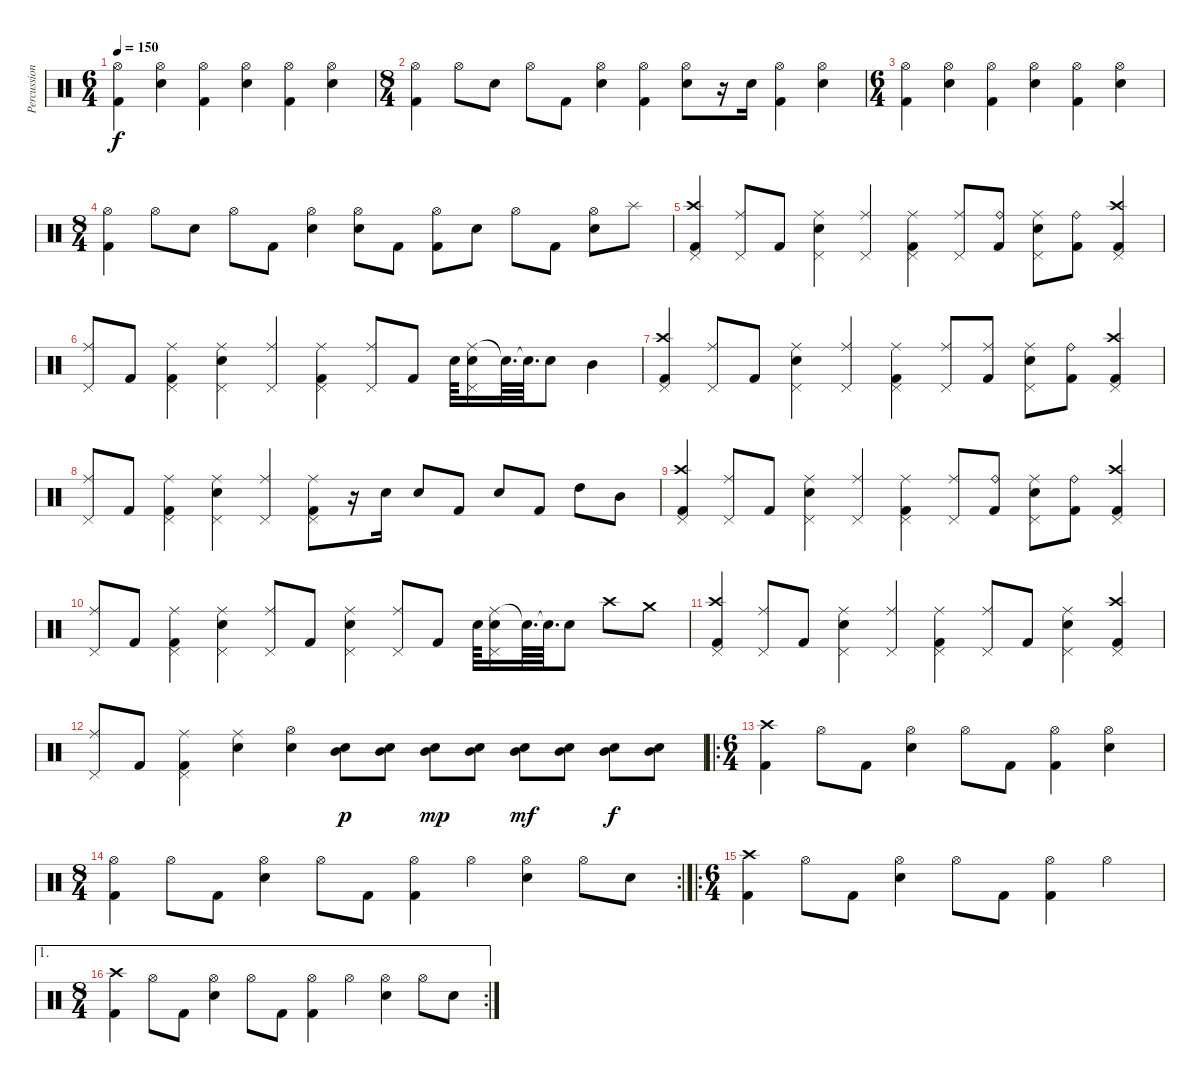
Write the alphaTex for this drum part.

\track ("Percussion" "Percussion") {instrument percussion}
\staff {score}
\articulation defaults
\ts (6 4)
\tempo 150
\clef neutral
\ks c
("Hi-Hat (open)" "Kick (hit) 2").4{dy f} ("Hi-Hat (open)" "Electric Snare (hit)").4 ("Hi-Hat (open)" "Kick (hit) 2").4 ("Hi-Hat (open)" "Electric Snare (hit)").4 ("Hi-Hat (open)" "Kick (hit) 2").4 ("Hi-Hat (open)" "Electric Snare (hit)").4 |
\ts (8 4)
("Hi-Hat (open)" "Kick (hit) 2").4 "Hi-Hat (open)".8 "Electric Snare (hit)".8 "Hi-Hat (open)".8 "Kick (hit) 2".8 ("Hi-Hat (open)" "Electric Snare (hit)").4 ("Hi-Hat (open)" "Kick (hit) 2").4 ("Hi-Hat (open)" "Electric Snare (hit)").8 r.16 "Electric Snare (hit)".16 ("Hi-Hat (open)" "Kick (hit) 2").4 ("Hi-Hat (open)" "Electric Snare (hit)").4 |
\ts (6 4)
("Hi-Hat (open)" "Kick (hit) 2").4 ("Hi-Hat (open)" "Electric Snare (hit)").4 ("Hi-Hat (open)" "Kick (hit) 2").4 ("Hi-Hat (open)" "Electric Snare (hit)").4 ("Hi-Hat (open)" "Kick (hit) 2").4 ("Hi-Hat (open)" "Electric Snare (hit)").4 |
\ts (8 4)
("Hi-Hat (open)" "Kick (hit) 2").4 "Hi-Hat (open)".8 "Electric Snare (hit)".8 "Hi-Hat (open)".8 "Kick (hit) 2".8 ("Hi-Hat (open)" "Electric Snare (hit)").4 ("Hi-Hat (open)" "Electric Snare (hit)").8 "Kick (hit) 2".8 ("Hi-Hat (open)" "Kick (hit) 2").8 "Electric Snare (hit)".8 "Hi-Hat (open)".8 "Kick (hit) 2".8 ("Hi-Hat (open)" "Electric Snare (hit)").8 "Splash (hit)".8 |
("Crash high (hit)" "Pedal Hi-Hat (hit)" "Kick (hit) 2").4 ("Ride (middle)" "Pedal Hi-Hat (hit)").8 "Kick (hit) 2".8 ("Ride (middle)" "Pedal Hi-Hat (hit)" "Electric Snare (hit)").4 ("Ride (middle)" "Pedal Hi-Hat (hit)").4 ("Ride (middle)" "Pedal Hi-Hat (hit)" "Kick (hit) 2").4 ("Ride (middle)" "Pedal Hi-Hat (hit)").8 ("Ride (bell)" "Kick (hit) 2").8 ("Ride (middle)" "Pedal Hi-Hat (hit)" "Electric Snare (hit)").8 ("Ride (bell)" "Kick (hit) 2").8 ("Crash high (hit)" "Pedal Hi-Hat (hit)" "Kick (hit) 2").4 |
("Ride (middle)" "Pedal Hi-Hat (hit)").8 "Kick (hit) 2".8 ("Ride (middle)" "Pedal Hi-Hat (hit)" "Kick (hit) 2").4 ("Ride (middle)" "Pedal Hi-Hat (hit)" "Electric Snare (hit)").4 ("Ride (middle)" "Pedal Hi-Hat (hit)").4 ("Ride (middle)" "Pedal Hi-Hat (hit)" "Kick (hit) 2").4 ("Ride (middle)" "Pedal Hi-Hat (hit)").8 "Kick (hit) 2".8 "Electric Snare (hit)".64 ("Ride (middle)" "Pedal Hi-Hat (hit)" "Electric Snare (hit)").16 "Snare (hit)"{t}.64{d} "Snare (hit)"{t}.64{d} "Electric Snare (hit)".8 "Mid Tom (hit)".4 |
("Crash high (hit)" "Pedal Hi-Hat (hit)" "Kick (hit) 2").4 ("Ride (middle)" "Pedal Hi-Hat (hit)").8 "Kick (hit) 2".8 ("Ride (middle)" "Pedal Hi-Hat (hit)" "Electric Snare (hit)").4 ("Ride (middle)" "Pedal Hi-Hat (hit)").4 ("Ride (middle)" "Pedal Hi-Hat (hit)" "Kick (hit) 2").4 ("Ride (middle)" "Pedal Hi-Hat (hit)").8 ("Ride (middle)" "Kick (hit) 2").8 ("Ride (middle)" "Pedal Hi-Hat (hit)" "Electric Snare (hit)").8 ("Ride (bell)" "Kick (hit) 2").8 ("Crash high (hit)" "Pedal Hi-Hat (hit)" "Kick (hit) 2").4 |
("Ride (middle)" "Pedal Hi-Hat (hit)").8 "Kick (hit) 2".8 ("Ride (middle)" "Pedal Hi-Hat (hit)" "Kick (hit) 2").4 ("Ride (middle)" "Pedal Hi-Hat (hit)" "Electric Snare (hit)").4 ("Ride (middle)" "Pedal Hi-Hat (hit)").4 ("Ride (middle)" "Pedal Hi-Hat (hit)" "Kick (hit) 2").8 r.16 "Electric Snare (hit)".16 "Electric Snare (hit)".8 "Kick (hit) 2".8 "Electric Snare (hit)".8 "Kick (hit) 2".8 "High Tom (hit)".8 "Mid Tom (hit)".8 |
("Crash high (hit)" "Pedal Hi-Hat (hit)" "Kick (hit) 2").4 ("Ride (middle)" "Pedal Hi-Hat (hit)").8 "Kick (hit) 2".8 ("Ride (middle)" "Pedal Hi-Hat (hit)" "Electric Snare (hit)").4 ("Ride (middle)" "Pedal Hi-Hat (hit)").4 ("Ride (middle)" "Pedal Hi-Hat (hit)" "Kick (hit) 2").4 ("Ride (middle)" "Pedal Hi-Hat (hit)").8 ("Ride (bell)" "Kick (hit) 2").8 ("Ride (middle)" "Pedal Hi-Hat (hit)" "Electric Snare (hit)").8 ("Ride (bell)" "Kick (hit) 2").8 ("Crash high (hit)" "Pedal Hi-Hat (hit)" "Kick (hit) 2").4 |
("Ride (middle)" "Pedal Hi-Hat (hit)").8 "Kick (hit) 2".8 ("Ride (middle)" "Pedal Hi-Hat (hit)" "Kick (hit) 2").4 ("Ride (middle)" "Pedal Hi-Hat (hit)" "Electric Snare (hit)").4 ("Ride (middle)" "Pedal Hi-Hat (hit)").8 "Kick (hit) 2".8 ("Ride (middle)" "Pedal Hi-Hat (hit)" "Electric Snare (hit)").4 ("Ride (middle)" "Pedal Hi-Hat (hit)").8 "Kick (hit) 2".8 "Electric Snare (hit)".64 ("Ride (middle)" "Pedal Hi-Hat (hit)" "Electric Snare (hit)").16 "Snare (hit)"{t}.64{d} "Snare (hit)"{t}.64{d} "Electric Snare (hit)".8 "Crash high (hit)".8 "Crash medium (hit)".8 |
("Crash high (hit)" "Pedal Hi-Hat (hit)" "Kick (hit) 2").4 ("Ride (middle)" "Pedal Hi-Hat (hit)").8 "Kick (hit) 2".8 ("Ride (middle)" "Pedal Hi-Hat (hit)" "Electric Snare (hit)").4 ("Ride (middle)" "Pedal Hi-Hat (hit)").4 ("Ride (middle)" "Pedal Hi-Hat (hit)" "Kick (hit) 2").4 ("Ride (middle)" "Pedal Hi-Hat (hit)").8 "Kick (hit) 2".8 ("Ride (middle)" "Pedal Hi-Hat (hit)" "Electric Snare (hit)").4 ("Crash high (hit)" "Pedal Hi-Hat (hit)" "Kick (hit) 2").4 |
("Ride (middle)" "Pedal Hi-Hat (hit)").8 "Kick (hit) 2".8 ("Ride (middle)" "Pedal Hi-Hat (hit)" "Kick (hit) 2").4 ("Ride (middle)" "Electric Snare (hit)").4 ("Hi-Hat (open)" "Electric Snare (hit)").4 ("Mid Tom (hit)" "Electric Snare (hit)").8{dy p} ("Mid Tom (hit)" "Electric Snare (hit)").8 ("Mid Tom (hit)" "Electric Snare (hit)").8{dy mp} ("Mid Tom (hit)" "Electric Snare (hit)").8 ("Mid Tom (hit)" "Electric Snare (hit)").8{dy mf} ("Mid Tom (hit)" "Electric Snare (hit)").8 ("Mid Tom (hit)" "Electric Snare (hit)").8{dy f} ("Mid Tom (hit)" "Electric Snare (hit)").8 |
\ro
\ts (6 4)
("Crash high (hit)" "Kick (hit) 2").4{volume 15} "Hi-Hat (open)".8 "Kick (hit) 2".8 ("Hi-Hat (open)" "Electric Snare (hit)").4 "Hi-Hat (open)".8 "Kick (hit) 2".8 ("Hi-Hat (open)" "Kick (hit) 2").4 ("Hi-Hat (open)" "Electric Snare (hit)").4 |
\rc 2
\ts (8 4)
("Hi-Hat (open)" "Kick (hit) 2").4 "Hi-Hat (open)".8 "Kick (hit) 2".8 ("Hi-Hat (open)" "Electric Snare (hit)").4 "Hi-Hat (open)".8 "Kick (hit) 2".8 ("Hi-Hat (open)" "Kick (hit) 2").4 "Hi-Hat (open)".4 ("Hi-Hat (open)" "Electric Snare (hit)").4 "Hi-Hat (open)".8 "Electric Snare (hit)".8 |
\ro
\ts (6 4)
("Crash high (hit)" "Kick (hit) 2").4 "Hi-Hat (open)".8 "Kick (hit) 2".8 ("Hi-Hat (open)" "Electric Snare (hit)").4 "Hi-Hat (open)".8 "Kick (hit) 2".8 ("Hi-Hat (open)" "Kick (hit) 2").4 "Hi-Hat (open)".4 |
\ae 1
\rc 2
\ts (8 4)
("Crash high (hit)" "Kick (hit) 2").4 "Hi-Hat (open)".8 "Kick (hit) 2".8 ("Hi-Hat (open)" "Electric Snare (hit)").4 "Hi-Hat (open)".8 "Kick (hit) 2".8 ("Hi-Hat (open)" "Kick (hit) 2").4 "Hi-Hat (open)".4 ("Hi-Hat (open)" "Electric Snare (hit)").4 "Hi-Hat (open)".8 "Electric Snare (hit)".8
